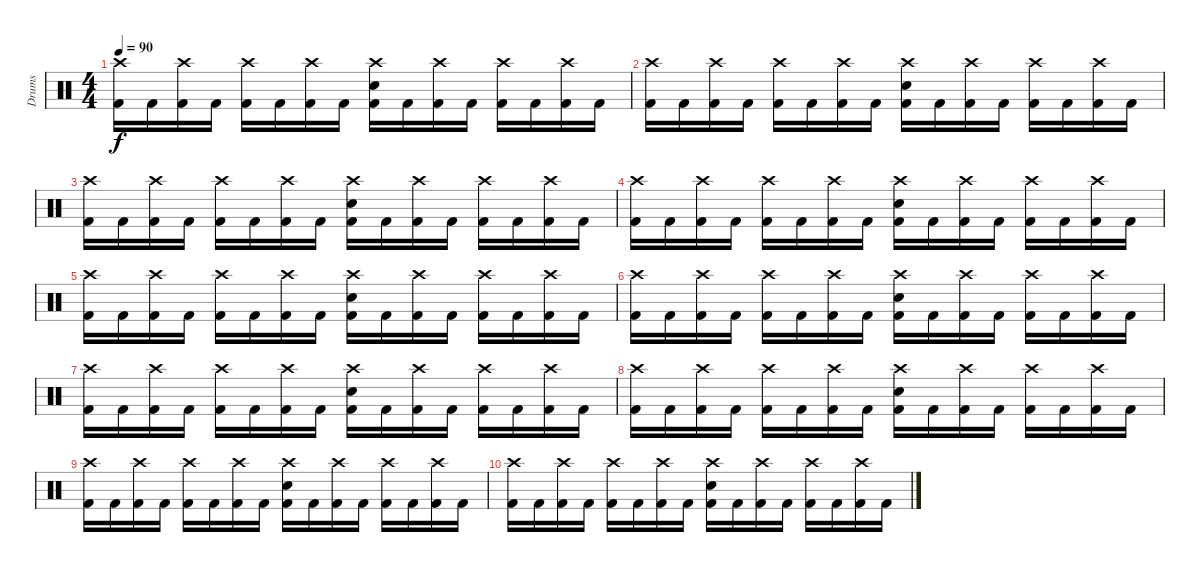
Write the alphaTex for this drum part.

\track ("Drums" "Drums") {instrument percussion}
\staff {score}
\articulation defaults
\ts (4 4)
\tempo 90
\clef neutral
\ks c
("Crash high (hit)" "Kick (hit) 2").16{dy f} "Kick (hit) 2".16 ("Crash high (hit)" "Kick (hit) 2").16 "Kick (hit) 2".16 ("Crash high (hit)" "Kick (hit) 2").16 "Kick (hit) 2".16 ("Crash high (hit)" "Kick (hit) 2").16 "Kick (hit) 2".16 ("Crash high (hit)" "Electric Snare (hit)" "Kick (hit) 2").16 "Kick (hit) 2".16 ("Crash high (hit)" "Kick (hit) 2").16 "Kick (hit) 2".16 ("Crash high (hit)" "Kick (hit) 2").16 "Kick (hit) 2".16 ("Crash high (hit)" "Kick (hit) 2").16 "Kick (hit) 2".16 |
("Crash high (hit)" "Kick (hit) 2").16 "Kick (hit) 2".16 ("Crash high (hit)" "Kick (hit) 2").16 "Kick (hit) 2".16 ("Crash high (hit)" "Kick (hit) 2").16 "Kick (hit) 2".16 ("Crash high (hit)" "Kick (hit) 2").16 "Kick (hit) 2".16 ("Crash high (hit)" "Electric Snare (hit)" "Kick (hit) 2").16 "Kick (hit) 2".16 ("Crash high (hit)" "Kick (hit) 2").16 "Kick (hit) 2".16 ("Crash high (hit)" "Kick (hit) 2").16 "Kick (hit) 2".16 ("Crash high (hit)" "Kick (hit) 2").16 "Kick (hit) 2".16 |
("Crash high (hit)" "Kick (hit) 2").16 "Kick (hit) 2".16 ("Crash high (hit)" "Kick (hit) 2").16 "Kick (hit) 2".16 ("Crash high (hit)" "Kick (hit) 2").16 "Kick (hit) 2".16 ("Crash high (hit)" "Kick (hit) 2").16 "Kick (hit) 2".16 ("Crash high (hit)" "Electric Snare (hit)" "Kick (hit) 2").16 "Kick (hit) 2".16 ("Crash high (hit)" "Kick (hit) 2").16 "Kick (hit) 2".16 ("Crash high (hit)" "Kick (hit) 2").16 "Kick (hit) 2".16 ("Crash high (hit)" "Kick (hit) 2").16 "Kick (hit) 2".16 |
("Crash high (hit)" "Kick (hit) 2").16 "Kick (hit) 2".16 ("Crash high (hit)" "Kick (hit) 2").16 "Kick (hit) 2".16 ("Crash high (hit)" "Kick (hit) 2").16 "Kick (hit) 2".16 ("Crash high (hit)" "Kick (hit) 2").16 "Kick (hit) 2".16 ("Crash high (hit)" "Electric Snare (hit)" "Kick (hit) 2").16 "Kick (hit) 2".16 ("Crash high (hit)" "Kick (hit) 2").16 "Kick (hit) 2".16 ("Crash high (hit)" "Kick (hit) 2").16 "Kick (hit) 2".16 ("Crash high (hit)" "Kick (hit) 2").16 "Kick (hit) 2".16 |
("Crash high (hit)" "Kick (hit) 2").16 "Kick (hit) 2".16 ("Crash high (hit)" "Kick (hit) 2").16 "Kick (hit) 2".16 ("Crash high (hit)" "Kick (hit) 2").16 "Kick (hit) 2".16 ("Crash high (hit)" "Kick (hit) 2").16 "Kick (hit) 2".16 ("Crash high (hit)" "Electric Snare (hit)" "Kick (hit) 2").16 "Kick (hit) 2".16 ("Crash high (hit)" "Kick (hit) 2").16 "Kick (hit) 2".16 ("Crash high (hit)" "Kick (hit) 2").16 "Kick (hit) 2".16 ("Crash high (hit)" "Kick (hit) 2").16 "Kick (hit) 2".16 |
("Crash high (hit)" "Kick (hit) 2").16 "Kick (hit) 2".16 ("Crash high (hit)" "Kick (hit) 2").16 "Kick (hit) 2".16 ("Crash high (hit)" "Kick (hit) 2").16 "Kick (hit) 2".16 ("Crash high (hit)" "Kick (hit) 2").16 "Kick (hit) 2".16 ("Crash high (hit)" "Electric Snare (hit)" "Kick (hit) 2").16 "Kick (hit) 2".16 ("Crash high (hit)" "Kick (hit) 2").16 "Kick (hit) 2".16 ("Crash high (hit)" "Kick (hit) 2").16 "Kick (hit) 2".16 ("Crash high (hit)" "Kick (hit) 2").16 "Kick (hit) 2".16 |
("Crash high (hit)" "Kick (hit) 2").16 "Kick (hit) 2".16 ("Crash high (hit)" "Kick (hit) 2").16 "Kick (hit) 2".16 ("Crash high (hit)" "Kick (hit) 2").16 "Kick (hit) 2".16 ("Crash high (hit)" "Kick (hit) 2").16 "Kick (hit) 2".16 ("Crash high (hit)" "Electric Snare (hit)" "Kick (hit) 2").16 "Kick (hit) 2".16 ("Crash high (hit)" "Kick (hit) 2").16 "Kick (hit) 2".16 ("Crash high (hit)" "Kick (hit) 2").16 "Kick (hit) 2".16 ("Crash high (hit)" "Kick (hit) 2").16 "Kick (hit) 2".16 |
("Crash high (hit)" "Kick (hit) 2").16 "Kick (hit) 2".16 ("Crash high (hit)" "Kick (hit) 2").16 "Kick (hit) 2".16 ("Crash high (hit)" "Kick (hit) 2").16 "Kick (hit) 2".16 ("Crash high (hit)" "Kick (hit) 2").16 "Kick (hit) 2".16 ("Crash high (hit)" "Electric Snare (hit)" "Kick (hit) 2").16 "Kick (hit) 2".16 ("Crash high (hit)" "Kick (hit) 2").16 "Kick (hit) 2".16 ("Crash high (hit)" "Kick (hit) 2").16 "Kick (hit) 2".16 ("Crash high (hit)" "Kick (hit) 2").16 "Kick (hit) 2".16 |
("Crash high (hit)" "Kick (hit) 2").16 "Kick (hit) 2".16 ("Crash high (hit)" "Kick (hit) 2").16 "Kick (hit) 2".16 ("Crash high (hit)" "Kick (hit) 2").16 "Kick (hit) 2".16 ("Crash high (hit)" "Kick (hit) 2").16 "Kick (hit) 2".16 ("Crash high (hit)" "Electric Snare (hit)" "Kick (hit) 2").16 "Kick (hit) 2".16 ("Crash high (hit)" "Kick (hit) 2").16 "Kick (hit) 2".16 ("Crash high (hit)" "Kick (hit) 2").16 "Kick (hit) 2".16 ("Crash high (hit)" "Kick (hit) 2").16 "Kick (hit) 2".16 |
("Crash high (hit)" "Kick (hit) 2").16 "Kick (hit) 2".16 ("Crash high (hit)" "Kick (hit) 2").16 "Kick (hit) 2".16 ("Crash high (hit)" "Kick (hit) 2").16 "Kick (hit) 2".16 ("Crash high (hit)" "Kick (hit) 2").16 "Kick (hit) 2".16 ("Crash high (hit)" "Electric Snare (hit)" "Kick (hit) 2").16 "Kick (hit) 2".16 ("Crash high (hit)" "Kick (hit) 2").16 "Kick (hit) 2".16 ("Crash high (hit)" "Kick (hit) 2").16 "Kick (hit) 2".16 ("Crash high (hit)" "Kick (hit) 2").16 "Kick (hit) 2".16
